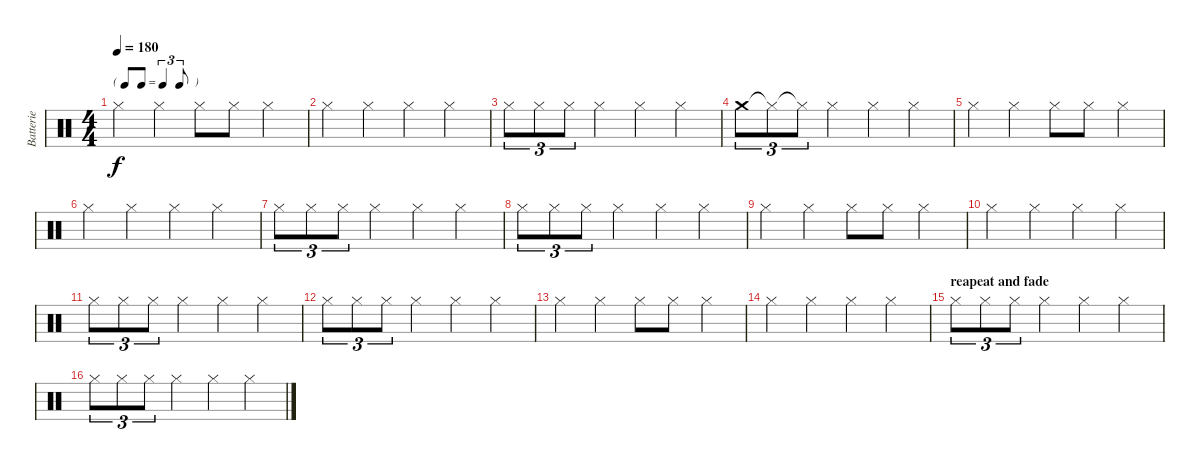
\track ("Batterie" "Batterie") {instrument percussion}
\staff {score}
\articulation defaults
\ts (4 4)
\tf triplet8th
\tempo 180
\clef neutral
\ks c "Hi-Hat (closed)".4{dy f} "Hi-Hat (closed)".4 "Hi-Hat (closed)".8 "Hi-Hat (closed)".8 "Hi-Hat (closed)".4
|
"Hi-Hat (closed)".4 "Hi-Hat (closed)".4 "Hi-Hat (closed)".4 "Hi-Hat (closed)".4 |
"Hi-Hat (closed)".8{tu (3 2)} "Hi-Hat (closed)".8{tu (3 2)} "Hi-Hat (closed)".8{tu (3 2)} "Hi-Hat (closed)".4 "Hi-Hat (closed)".4 "Hi-Hat (closed)".4 |
"Crash medium (hit)".8{tu (3 2)} "Hi-Hat (closed)"{t}.8{tu (3 2)} "Hi-Hat (closed)"{t}.8{tu (3 2)} "Hi-Hat (closed)".4 "Hi-Hat (closed)".4 "Hi-Hat (closed)".4 |
"Hi-Hat (closed)".4 "Hi-Hat (closed)".4 "Hi-Hat (closed)".8 "Hi-Hat (closed)".8 "Hi-Hat (closed)".4 |
"Hi-Hat (closed)".4 "Hi-Hat (closed)".4 "Hi-Hat (closed)".4 "Hi-Hat (closed)".4 |
"Hi-Hat (closed)".8{tu (3 2)} "Hi-Hat (closed)".8{tu (3 2)} "Hi-Hat (closed)".8{tu (3 2)} "Hi-Hat (closed)".4 "Hi-Hat (closed)".4 "Hi-Hat (closed)".4 |
"Hi-Hat (closed)".8{tu (3 2)} "Hi-Hat (closed)".8{tu (3 2)} "Hi-Hat (closed)".8{tu (3 2)} "Hi-Hat (closed)".4 "Hi-Hat (closed)".4 "Hi-Hat (closed)".4 |
"Hi-Hat (closed)".4 "Hi-Hat (closed)".4 "Hi-Hat (closed)".8 "Hi-Hat (closed)".8 "Hi-Hat (closed)".4 |
"Hi-Hat (closed)".4 "Hi-Hat (closed)".4 "Hi-Hat (closed)".4 "Hi-Hat (closed)".4 |
"Hi-Hat (closed)".8{tu (3 2)} "Hi-Hat (closed)".8{tu (3 2)} "Hi-Hat (closed)".8{tu (3 2)} "Hi-Hat (closed)".4 "Hi-Hat (closed)".4 "Hi-Hat (closed)".4 |
"Hi-Hat (closed)".8{tu (3 2)} "Hi-Hat (closed)".8{tu (3 2)} "Hi-Hat (closed)".8{tu (3 2)} "Hi-Hat (closed)".4 "Hi-Hat (closed)".4 "Hi-Hat (closed)".4 |
"Hi-Hat (closed)".4 "Hi-Hat (closed)".4 "Hi-Hat (closed)".8 "Hi-Hat (closed)".8 "Hi-Hat (closed)".4 |
"Hi-Hat (closed)".4 "Hi-Hat (closed)".4 "Hi-Hat (closed)".4 "Hi-Hat (closed)".4 |
\section ("" "reapeat and fade")
"Hi-Hat (closed)".8{tu (3 2)} "Hi-Hat (closed)".8{tu (3 2)} "Hi-Hat (closed)".8{tu (3 2)} "Hi-Hat (closed)".4 "Hi-Hat (closed)".4 "Hi-Hat (closed)".4 |
"Hi-Hat (closed)".8{tu (3 2)} "Hi-Hat (closed)".8{tu (3 2)} "Hi-Hat (closed)".8{tu (3 2)} "Hi-Hat (closed)".4 "Hi-Hat (closed)".4 "Hi-Hat (closed)".4
